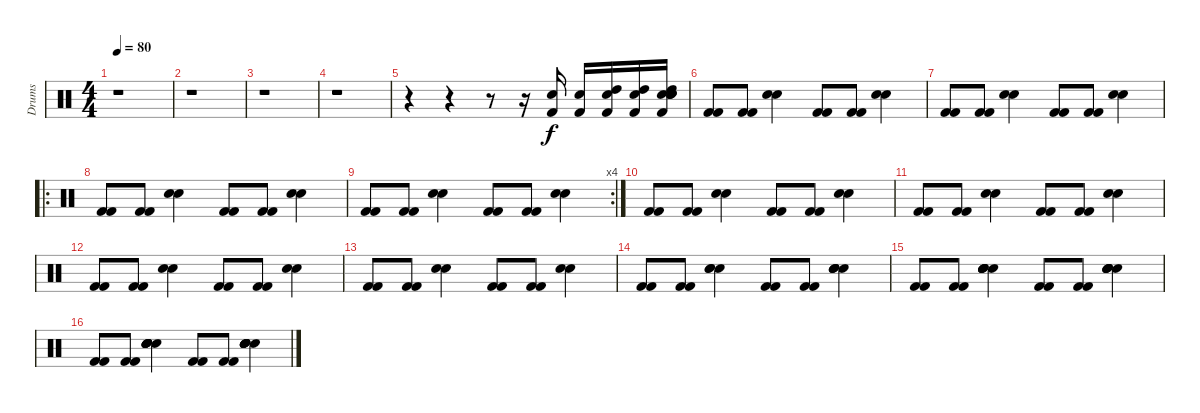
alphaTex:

\track ("Drums" "Drums") {instrument percussion}
\staff {score}
\articulation defaults
\ts (4 4)
\tempo 80
\clef neutral
\ks c
r.1{dy f} |
r.1 |
r.1 |
r.1 |
r.4 r.4 r.8 r.16 ("Kick (hit) 2" "Electric Snare (hit)").16 ("Kick (hit) 2" "Electric Snare (hit)").16 ("Kick (hit) 2" "Electric Snare (hit)" "High Tom (hit)").16 ("Kick (hit) 2" "Electric Snare (hit)" "High Tom (hit)").16 ("Kick (hit) 2" "Electric Snare (hit)" "High Tom (hit)" "Electric Snare (hit)" "Electric Snare (hit)" "Electric Snare (hit)").16 |
("Kick (hit) 2" "Kick (hit) 2").8 ("Kick (hit) 2" "Kick (hit) 2").8 ("Electric Snare (hit)" "Electric Snare (hit)").4 ("Kick (hit) 2" "Kick (hit) 2").8 ("Kick (hit) 2" "Kick (hit) 2").8 ("Electric Snare (hit)" "Electric Snare (hit)").4 |
("Kick (hit) 2" "Kick (hit) 2").8 ("Kick (hit) 2" "Kick (hit) 2").8 ("Electric Snare (hit)" "Electric Snare (hit)").4 ("Kick (hit) 2" "Kick (hit) 2").8 ("Kick (hit) 2" "Kick (hit) 2").8 ("Electric Snare (hit)" "Electric Snare (hit)").4 |
\ro
("Kick (hit) 2" "Kick (hit) 2").8 ("Kick (hit) 2" "Kick (hit) 2").8 ("Electric Snare (hit)" "Electric Snare (hit)").4 ("Kick (hit) 2" "Kick (hit) 2").8 ("Kick (hit) 2" "Kick (hit) 2").8 ("Electric Snare (hit)" "Electric Snare (hit)").4 |
\rc 4
("Kick (hit) 2" "Kick (hit) 2").8 ("Kick (hit) 2" "Kick (hit) 2").8 ("Electric Snare (hit)" "Electric Snare (hit)").4 ("Kick (hit) 2" "Kick (hit) 2").8 ("Kick (hit) 2" "Kick (hit) 2").8 ("Electric Snare (hit)" "Electric Snare (hit)").4 |
("Kick (hit) 2" "Kick (hit) 2").8 ("Kick (hit) 2" "Kick (hit) 2").8 ("Electric Snare (hit)" "Electric Snare (hit)").4 ("Kick (hit) 2" "Kick (hit) 2").8 ("Kick (hit) 2" "Kick (hit) 2").8 ("Electric Snare (hit)" "Electric Snare (hit)").4 |
("Kick (hit) 2" "Kick (hit) 2").8 ("Kick (hit) 2" "Kick (hit) 2").8 ("Electric Snare (hit)" "Electric Snare (hit)").4 ("Kick (hit) 2" "Kick (hit) 2").8 ("Kick (hit) 2" "Kick (hit) 2").8 ("Electric Snare (hit)" "Electric Snare (hit)").4 |
("Kick (hit) 2" "Kick (hit) 2").8 ("Kick (hit) 2" "Kick (hit) 2").8 ("Electric Snare (hit)" "Electric Snare (hit)").4 ("Kick (hit) 2" "Kick (hit) 2").8 ("Kick (hit) 2" "Kick (hit) 2").8 ("Electric Snare (hit)" "Electric Snare (hit)").4 |
("Kick (hit) 2" "Kick (hit) 2").8 ("Kick (hit) 2" "Kick (hit) 2").8 ("Electric Snare (hit)" "Electric Snare (hit)").4 ("Kick (hit) 2" "Kick (hit) 2").8 ("Kick (hit) 2" "Kick (hit) 2").8 ("Electric Snare (hit)" "Electric Snare (hit)").4 |
("Kick (hit) 2" "Kick (hit) 2").8 ("Kick (hit) 2" "Kick (hit) 2").8 ("Electric Snare (hit)" "Electric Snare (hit)" "Electric Snare (hit)").4 ("Kick (hit) 2" "Kick (hit) 2").8 ("Kick (hit) 2" "Kick (hit) 2").8 ("Electric Snare (hit)" "Electric Snare (hit)" "Electric Snare (hit)" "Electric Snare (hit)").4 |
("Kick (hit) 2" "Kick (hit) 2").8 ("Kick (hit) 2" "Kick (hit) 2").8 ("Electric Snare (hit)" "Electric Snare (hit)" "Electric Snare (hit)" "Electric Snare (hit)" "Electric Snare (hit)").4 ("Kick (hit) 2" "Kick (hit) 2").8 ("Kick (hit) 2" "Kick (hit) 2").8 ("Electric Snare (hit)" "Electric Snare (hit)" "Electric Snare (hit)" "Electric Snare (hit)" "Electric Snare (hit)").4 |
("Kick (hit) 2" "Kick (hit) 2").8 ("Kick (hit) 2" "Kick (hit) 2").8 ("Electric Snare (hit)" "Electric Snare (hit)" "Electric Snare (hit)" "Electric Snare (hit)" "Electric Snare (hit)" "Electric Snare (hit)").4 ("Kick (hit) 2" "Kick (hit) 2").8 ("Kick (hit) 2" "Kick (hit) 2").8 ("Electric Snare (hit)" "Electric Snare (hit)" "Electric Snare (hit)" "Electric Snare (hit)" "Electric Snare (hit)" "Electric Snare (hit)").4
